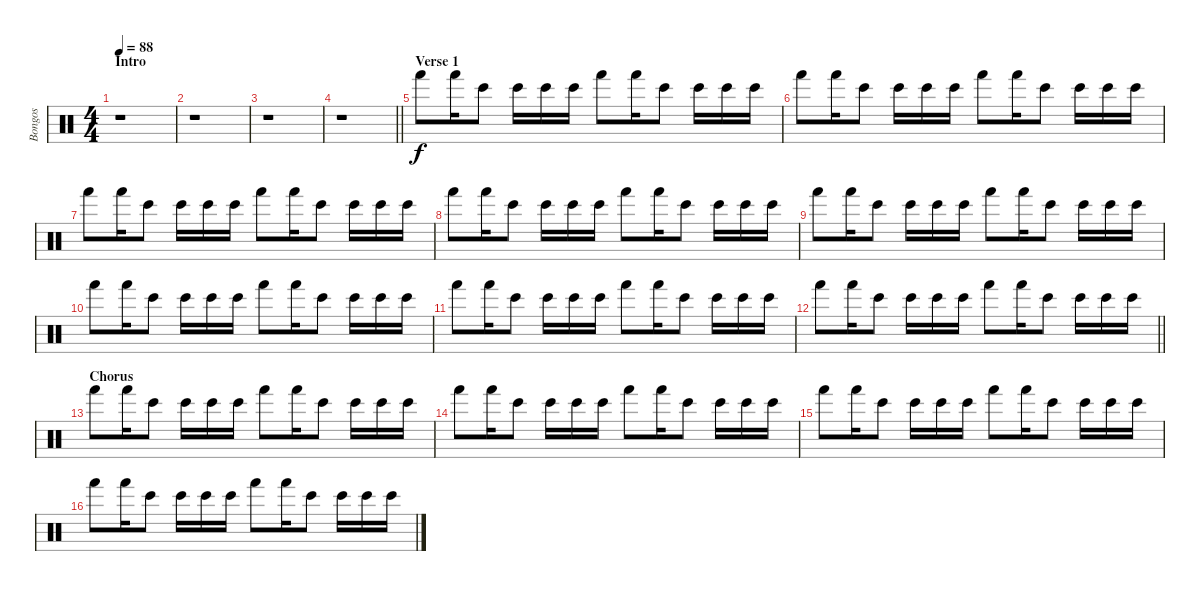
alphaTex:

\track ("Bongos" "Bongos") {instrument percussion}
\staff {score}
\articulation defaults
\ts (4 4)
\section ("" "Intro")
\tempo 88
\clef neutral
\ks c
r.1{dy f} |
r.1 |
r.1 |
\barLineRight lightlight
r.1 |
\section ("" "Verse 1")
"Hand (hit)".8 "Hand (hit)".16 "Bongo High (hit)".8 "Bongo High (hit)".16 "Bongo High (hit)".16 "Bongo High (hit)".16 "Hand (hit)".8 "Hand (hit)".16 "Bongo High (hit)".8 "Bongo High (hit)".16 "Bongo High (hit)".16 "Bongo High (hit)".16 |
"Hand (hit)".8 "Hand (hit)".16 "Bongo High (hit)".8 "Bongo High (hit)".16 "Bongo High (hit)".16 "Bongo High (hit)".16 "Hand (hit)".8 "Hand (hit)".16 "Bongo High (hit)".8 "Bongo High (hit)".16 "Bongo High (hit)".16 "Bongo High (hit)".16 |
"Hand (hit)".8 "Hand (hit)".16 "Bongo High (hit)".8 "Bongo High (hit)".16 "Bongo High (hit)".16 "Bongo High (hit)".16 "Hand (hit)".8 "Hand (hit)".16 "Bongo High (hit)".8 "Bongo High (hit)".16 "Bongo High (hit)".16 "Bongo High (hit)".16 |
"Hand (hit)".8 "Hand (hit)".16 "Bongo High (hit)".8 "Bongo High (hit)".16 "Bongo High (hit)".16 "Bongo High (hit)".16 "Hand (hit)".8 "Hand (hit)".16 "Bongo High (hit)".8 "Bongo High (hit)".16 "Bongo High (hit)".16 "Bongo High (hit)".16 |
"Hand (hit)".8 "Hand (hit)".16 "Bongo High (hit)".8 "Bongo High (hit)".16 "Bongo High (hit)".16 "Bongo High (hit)".16 "Hand (hit)".8 "Hand (hit)".16 "Bongo High (hit)".8 "Bongo High (hit)".16 "Bongo High (hit)".16 "Bongo High (hit)".16 |
"Hand (hit)".8 "Hand (hit)".16 "Bongo High (hit)".8 "Bongo High (hit)".16 "Bongo High (hit)".16 "Bongo High (hit)".16 "Hand (hit)".8 "Hand (hit)".16 "Bongo High (hit)".8 "Bongo High (hit)".16 "Bongo High (hit)".16 "Bongo High (hit)".16 |
"Hand (hit)".8 "Hand (hit)".16 "Bongo High (hit)".8 "Bongo High (hit)".16 "Bongo High (hit)".16 "Bongo High (hit)".16 "Hand (hit)".8 "Hand (hit)".16 "Bongo High (hit)".8 "Bongo High (hit)".16 "Bongo High (hit)".16 "Bongo High (hit)".16 |
\barLineRight lightlight "Hand (hit)".8 "Hand (hit)".16 "Bongo High (hit)".8 "Bongo High (hit)".16 "Bongo High (hit)".16 "Bongo High (hit)".16 "Hand (hit)".8 "Hand (hit)".16 "Bongo High (hit)".8 "Bongo High (hit)".16 "Bongo High (hit)".16 "Bongo High (hit)".16
|
\section ("" "Chorus")
"Hand (hit)".8 "Hand (hit)".16 "Bongo High (hit)".8 "Bongo High (hit)".16 "Bongo High (hit)".16 "Bongo High (hit)".16 "Hand (hit)".8 "Hand (hit)".16 "Bongo High (hit)".8 "Bongo High (hit)".16 "Bongo High (hit)".16 "Bongo High (hit)".16 |
"Hand (hit)".8 "Hand (hit)".16 "Bongo High (hit)".8 "Bongo High (hit)".16 "Bongo High (hit)".16 "Bongo High (hit)".16 "Hand (hit)".8 "Hand (hit)".16 "Bongo High (hit)".8 "Bongo High (hit)".16 "Bongo High (hit)".16 "Bongo High (hit)".16 |
"Hand (hit)".8 "Hand (hit)".16 "Bongo High (hit)".8 "Bongo High (hit)".16 "Bongo High (hit)".16 "Bongo High (hit)".16 "Hand (hit)".8 "Hand (hit)".16 "Bongo High (hit)".8 "Bongo High (hit)".16 "Bongo High (hit)".16 "Bongo High (hit)".16 |
"Hand (hit)".8 "Hand (hit)".16 "Bongo High (hit)".8 "Bongo High (hit)".16 "Bongo High (hit)".16 "Bongo High (hit)".16 "Hand (hit)".8 "Hand (hit)".16 "Bongo High (hit)".8 "Bongo High (hit)".16 "Bongo High (hit)".16 "Bongo High (hit)".16
